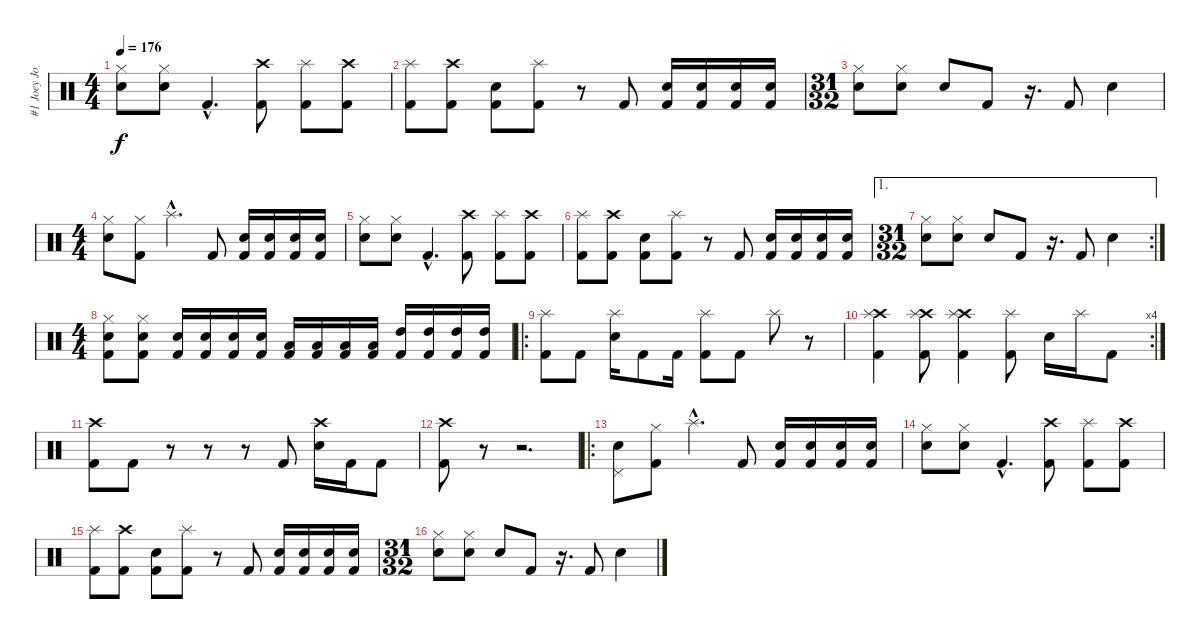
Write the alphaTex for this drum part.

\track ("#1 Joey Jordison - Drums" "#1 Joey Jo") {instrument percussion}
\staff {score}
\articulation defaults
\ts (4 4)
\tempo 176
\clef neutral
\ks c
("Hi-Hat (closed)" "Snare (hit) 2").8{dy f} ("Hi-Hat (closed)" "Snare (hit) 2").8 "Kick (hit) 2"{hac}.4{d} ("Crash high (hit)" "Kick (hit) 2").8 ("Splash (hit)" "Kick (hit) 2").8 ("Crash high (hit)" "Kick (hit) 2").8 |
("Splash (hit)" "Kick (hit) 2").8 ("Crash high (hit)" "Kick (hit) 2").8 ("Snare (hit) 2" "Kick (hit) 2").8 ("Splash (hit)" "Kick (hit) 2").8 r.8 "Kick (hit) 2".8 ("Snare (hit) 2" "Kick (hit) 2").16 ("Snare (hit) 2" "Kick (hit) 2").16 ("Snare (hit) 2" "Kick (hit) 2").16 ("Snare (hit) 2" "Kick (hit) 2").16 |
\ts (31 32)
("Hi-Hat (closed)" "Snare (hit) 2").8 ("Hi-Hat (closed)" "Snare (hit) 2").8 "Snare (hit) 2".8 "Kick (hit) 2".8 r.16{d} "Kick (hit) 2".8 "Snare (hit) 2".4 |
\ts (4 4)
("Hi-Hat (closed)" "Snare (hit) 2").8 ("Hi-Hat (closed)" "Kick (hit) 2").8 "Splash (hit)"{hac}.4{d} "Kick (hit) 2".8 ("Snare (hit) 2" "Kick (hit) 2").16 ("Snare (hit) 2" "Kick (hit) 2").16 ("Snare (hit) 2" "Kick (hit) 2").16 ("Snare (hit) 2" "Kick (hit) 2").16 |
("Hi-Hat (closed)" "Snare (hit) 2").8 ("Hi-Hat (closed)" "Snare (hit) 2").8 "Kick (hit) 2"{hac}.4{d} ("Crash high (hit)" "Kick (hit) 2").8 ("Splash (hit)" "Kick (hit) 2").8 ("Crash high (hit)" "Kick (hit) 2").8 |
("Splash (hit)" "Kick (hit) 2").8 ("Crash high (hit)" "Kick (hit) 2").8 ("Snare (hit) 2" "Kick (hit) 2").8 ("Splash (hit)" "Kick (hit) 2").8 r.8 "Kick (hit) 2".8 ("Snare (hit) 2" "Kick (hit) 2").16 ("Snare (hit) 2" "Kick (hit) 2").16 ("Snare (hit) 2" "Kick (hit) 2").16 ("Snare (hit) 2" "Kick (hit) 2").16 |
\ae 1
\rc 2
\ts (31 32)
("Hi-Hat (closed)" "Snare (hit) 2").8 ("Hi-Hat (closed)" "Snare (hit) 2").8 "Snare (hit) 2".8 "Kick (hit) 2".8 r.16{d} "Kick (hit) 2".8 "Snare (hit) 2".4 |
\ts (4 4)
("Hi-Hat (closed)" "Snare (hit) 2" "Kick (hit) 2").8 ("Hi-Hat (closed)" "Snare (hit) 2" "Kick (hit) 2").8 ("Snare (hit) 2" "Kick (hit) 2").16 ("Snare (hit) 2" "Kick (hit) 2").16 ("Snare (hit) 2" "Kick (hit) 2").16 ("Snare (hit) 2" "Kick (hit) 2").16 ("Low Tom (hit)" "Kick (hit) 2").16 ("Low Tom (hit)" "Kick (hit) 2").16 ("Low Tom (hit)" "Kick (hit) 2").16 ("Low Tom (hit)" "Kick (hit) 2").16 ("High Tom (hit)" "Kick (hit) 2").16 ("High Tom (hit)" "Kick (hit) 2").16 ("High Tom (hit)" "Kick (hit) 2").16 ("High Tom (hit)" "Kick (hit) 2").16 |
\ro
("Splash (hit)" "Kick (hit) 2").8 "Kick (hit) 2".8 ("Splash (hit)" "Snare (hit) 2").16 "Kick (hit) 2".8 "Kick (hit) 2".16 ("Splash (hit)" "Kick (hit) 2").8 "Kick (hit) 2".8 "Splash (hit)".8 r.8 |
\rc 4
("Kick (hit) 2" "Crash high (hit)" "Splash (hit)").4 ("Kick (hit) 2" "Crash high (hit)" "Splash (hit)").8 ("Crash high (hit)" "Splash (hit)" "Kick (hit) 2").4 ("Splash (hit)" "Kick (hit) 2").8 "Snare (hit) 2".16 "Splash (hit)".16 "Kick (hit) 2".8 |
("Kick (hit) 2" "Crash high (hit)").8 "Kick (hit) 2".8 r.8 r.8 r.8 "Kick (hit) 2".8 ("Snare (hit) 2" "Crash high (hit)").16 "Kick (hit) 2".16 "Kick (hit) 2".8 |
("Kick (hit) 2" "Crash high (hit)").8 r.8 r.2{d} |
\ro
("Pedal Hi-Hat (hit)" "Snare (hit) 2").8 ("Hi-Hat (closed)" "Kick (hit) 2").8 "Splash (hit)"{hac}.4{d} "Kick (hit) 2".8 ("Snare (hit) 2" "Kick (hit) 2").16 ("Snare (hit) 2" "Kick (hit) 2").16 ("Snare (hit) 2" "Kick (hit) 2").16 ("Snare (hit) 2" "Kick (hit) 2").16 |
("Hi-Hat (closed)" "Snare (hit) 2").8 ("Hi-Hat (closed)" "Snare (hit) 2").8 "Kick (hit) 2"{hac}.4{d} ("Crash high (hit)" "Kick (hit) 2").8 ("Splash (hit)" "Kick (hit) 2").8 ("Crash high (hit)" "Kick (hit) 2").8 |
("Splash (hit)" "Kick (hit) 2").8 ("Crash high (hit)" "Kick (hit) 2").8 ("Snare (hit) 2" "Kick (hit) 2").8 ("Splash (hit)" "Kick (hit) 2").8 r.8 "Kick (hit) 2".8 ("Snare (hit) 2" "Kick (hit) 2").16 ("Snare (hit) 2" "Kick (hit) 2").16 ("Snare (hit) 2" "Kick (hit) 2").16 ("Snare (hit) 2" "Kick (hit) 2").16 |
\ts (31 32)
("Hi-Hat (closed)" "Snare (hit) 2").8 ("Hi-Hat (closed)" "Snare (hit) 2").8 "Snare (hit) 2".8 "Kick (hit) 2".8 r.16{d} "Kick (hit) 2".8 "Snare (hit) 2".4
